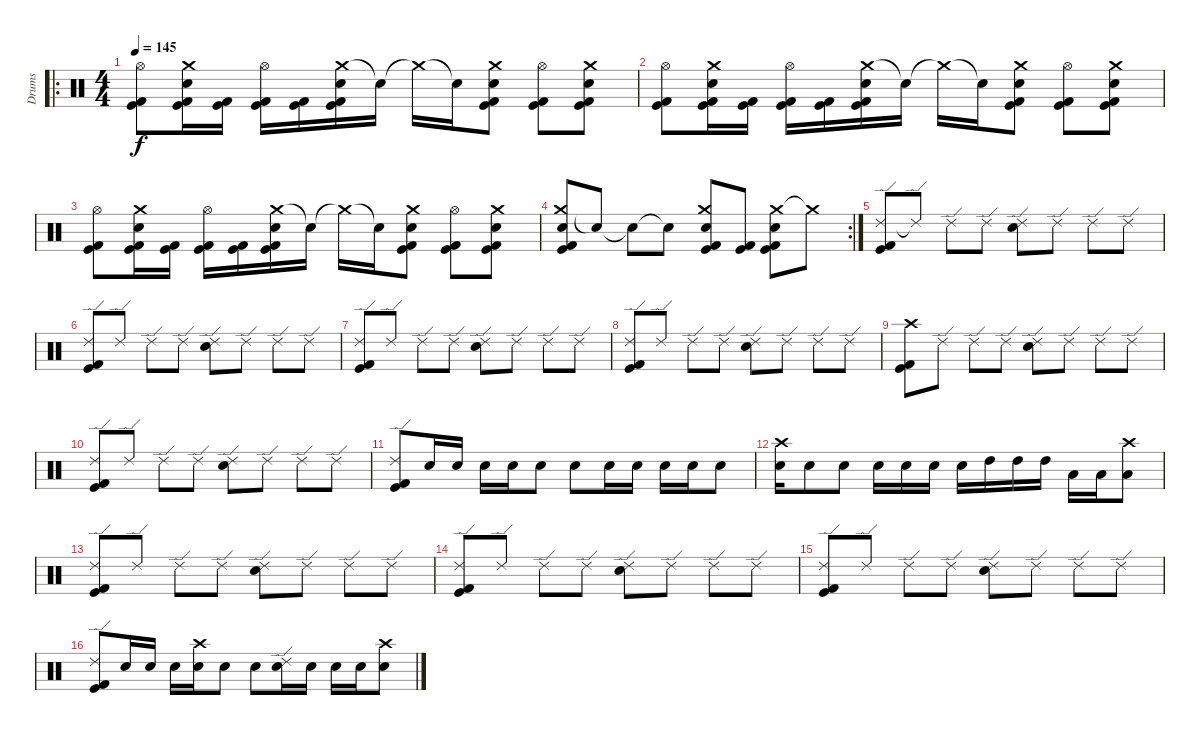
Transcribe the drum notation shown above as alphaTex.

\track ("Drums" "Drums") {instrument percussion}
\staff {score}
\articulation defaults
\ro
\ts (4 4)
\tempo 145
\clef neutral
\ks c
("Hi-Hat (open)" "Kick (hit) 2" "Kick (hit)").8{dy f} ("Crash medium (hit)" "Snare (hit) 2" "Kick (hit) 2" "Kick (hit)").16 ("Kick (hit) 2" "Kick (hit)").16 ("Hi-Hat (open)" "Kick (hit) 2" "Kick (hit)").16 ("Kick (hit) 2" "Kick (hit)").16 ("Crash medium (hit)" "Snare (hit) 2" "Kick (hit) 2" "Kick (hit)").16 "Snare (hit)"{t}.16 "Crash medium (hit)"{t}.16 "Snare (hit)"{t}.16 ("Crash medium (hit)" "Snare (hit) 2" "Kick (hit) 2" "Kick (hit)").8 ("Hi-Hat (open)" "Kick (hit) 2" "Kick (hit)").8 ("Crash medium (hit)" "Snare (hit) 2" "Kick (hit) 2" "Kick (hit)").8 |
("Hi-Hat (open)" "Kick (hit) 2" "Kick (hit)").8 ("Crash medium (hit)" "Snare (hit) 2" "Kick (hit) 2" "Kick (hit)").16 ("Kick (hit) 2" "Kick (hit)").16 ("Hi-Hat (open)" "Kick (hit) 2" "Kick (hit)").16 ("Kick (hit) 2" "Kick (hit)").16 ("Crash medium (hit)" "Snare (hit) 2" "Kick (hit) 2" "Kick (hit)").16 "Snare (hit)"{t}.16 "Crash medium (hit)"{t}.16 "Snare (hit)"{t}.16 ("Crash medium (hit)" "Snare (hit) 2" "Kick (hit) 2" "Kick (hit)").8 ("Hi-Hat (open)" "Kick (hit) 2" "Kick (hit)").8 ("Crash medium (hit)" "Snare (hit) 2" "Kick (hit) 2" "Kick (hit)").8 |
("Hi-Hat (open)" "Kick (hit) 2" "Kick (hit)").8 ("Crash medium (hit)" "Snare (hit) 2" "Kick (hit) 2" "Kick (hit)").16 ("Kick (hit) 2" "Kick (hit)").16 ("Hi-Hat (open)" "Kick (hit) 2" "Kick (hit)").16 ("Kick (hit) 2" "Kick (hit)").16 ("Crash medium (hit)" "Snare (hit) 2" "Kick (hit) 2" "Kick (hit)").16 "Snare (hit)"{t}.16 "Crash medium (hit)"{t}.16 "Snare (hit)"{t}.16 ("Crash medium (hit)" "Snare (hit) 2" "Kick (hit) 2" "Kick (hit)").8 ("Hi-Hat (open)" "Kick (hit) 2" "Kick (hit)").8 ("Crash medium (hit)" "Snare (hit) 2" "Kick (hit) 2" "Kick (hit)").8 |
\rc 2
("Crash medium (hit)" "Snare (hit) 2" "Kick (hit) 2" "Kick (hit)").8 "Snare (hit)"{t}.8 "Snare (hit)"{t}.8 "Snare (hit)"{t}.8 ("Crash medium (hit)" "Snare (hit) 2" "Kick (hit) 2" "Kick (hit)").8 ("Kick (hit) 2" "Kick (hit)").8 ("Crash medium (hit)" "Snare (hit) 2" "Kick (hit) 2" "Kick (hit)").8 "Crash medium (hit)"{t}.8 |
("Ride (edge) 2" "Kick (hit) 2" "Kick (hit)").8 "Ride (edge) 2"{t}.8 "Ride (edge) 2".8 "Ride (edge) 2".8 ("Ride (edge) 2" "Snare (hit) 2").8 "Ride (edge) 2".8 "Ride (edge) 2".8 "Ride (edge) 2".8 |
("Ride (edge) 2" "Kick (hit) 2" "Kick (hit)").8 "Ride (edge) 2".8 "Ride (edge) 2".8 "Ride (edge) 2".8 ("Ride (edge) 2" "Snare (hit) 2").8 "Ride (edge) 2".8 "Ride (edge) 2".8 "Ride (edge) 2".8 |
("Ride (edge) 2" "Kick (hit) 2" "Kick (hit)").8 "Ride (edge) 2".8 "Ride (edge) 2".8 "Ride (edge) 2".8 ("Ride (edge) 2" "Snare (hit) 2").8 "Ride (edge) 2".8 "Ride (edge) 2".8 "Ride (edge) 2".8 |
("Ride (edge) 2" "Kick (hit) 2" "Kick (hit)").8 "Ride (edge) 2".8 "Ride (edge) 2".8 "Ride (edge) 2".8 ("Ride (edge) 2" "Snare (hit) 2").8 "Ride (edge) 2".8 "Ride (edge) 2".8 "Ride (edge) 2".8 |
("Crash high (hit)" "Kick (hit) 2" "Kick (hit)").8 "Ride (edge) 2".8 "Ride (edge) 2".8 "Ride (edge) 2".8 ("Ride (edge) 2" "Snare (hit) 2").8 "Ride (edge) 2".8 "Ride (edge) 2".8 "Ride (edge) 2".8 |
("Ride (edge) 2" "Kick (hit) 2" "Kick (hit)").8 "Ride (edge) 2".8 "Ride (edge) 2".8 "Ride (edge) 2".8 ("Ride (edge) 2" "Snare (hit) 2").8 "Ride (edge) 2".8 "Ride (edge) 2".8 "Ride (edge) 2".8 |
("Ride (edge) 2" "Kick (hit) 2" "Kick (hit)").8 "Snare (hit) 2".16 "Snare (hit) 2".16 "Snare (hit) 2".16 "Snare (hit) 2".16 "Snare (hit) 2".8 "Snare (hit) 2".8 "Snare (hit) 2".16 "Snare (hit) 2".16 "Snare (hit) 2".16 "Snare (hit) 2".16 "Snare (hit) 2".8 |
("Crash high (hit)" "Snare (hit) 2").16 "Snare (hit) 2".8 "Snare (hit) 2".8 "Snare (hit) 2".16 "Snare (hit) 2".16 "Snare (hit) 2".16 "Snare (hit) 2".16 "High Tom (hit)".16 "High Tom (hit)".16 "High Tom (hit)".16 "Low Tom (hit)".16 "Low Tom (hit)".16 ("Crash high (hit)" "Low Tom (hit)").8 |
("Ride (edge) 2" "Kick (hit) 2" "Kick (hit)").8 "Ride (edge) 2".8 "Ride (edge) 2".8 "Ride (edge) 2".8 ("Ride (edge) 2" "Snare (hit) 2").8 "Ride (edge) 2".8 "Ride (edge) 2".8 "Ride (edge) 2".8 |
("Ride (edge) 2" "Kick (hit) 2" "Kick (hit)").8 "Ride (edge) 2".8 "Ride (edge) 2".8 "Ride (edge) 2".8 ("Ride (edge) 2" "Snare (hit) 2").8 "Ride (edge) 2".8 "Ride (edge) 2".8 "Ride (edge) 2".8 |
("Ride (edge) 2" "Kick (hit) 2" "Kick (hit)").8 "Ride (edge) 2".8 "Ride (edge) 2".8 "Ride (edge) 2".8 ("Ride (edge) 2" "Snare (hit) 2").8 "Ride (edge) 2".8 "Ride (edge) 2".8 "Ride (edge) 2".8 |
("Ride (edge) 2" "Kick (hit) 2" "Kick (hit)").8 "Snare (hit) 2".16 "Snare (hit) 2".16 "Snare (hit) 2".16 ("Crash high (hit)" "Snare (hit) 2").16 "Snare (hit) 2".8 "Snare (hit) 2".8 ("Ride (edge) 2" "Snare (hit) 2").16 "Snare (hit) 2".16 "Snare (hit) 2".16 "Snare (hit) 2".16 ("Crash high (hit)" "Snare (hit) 2").8
